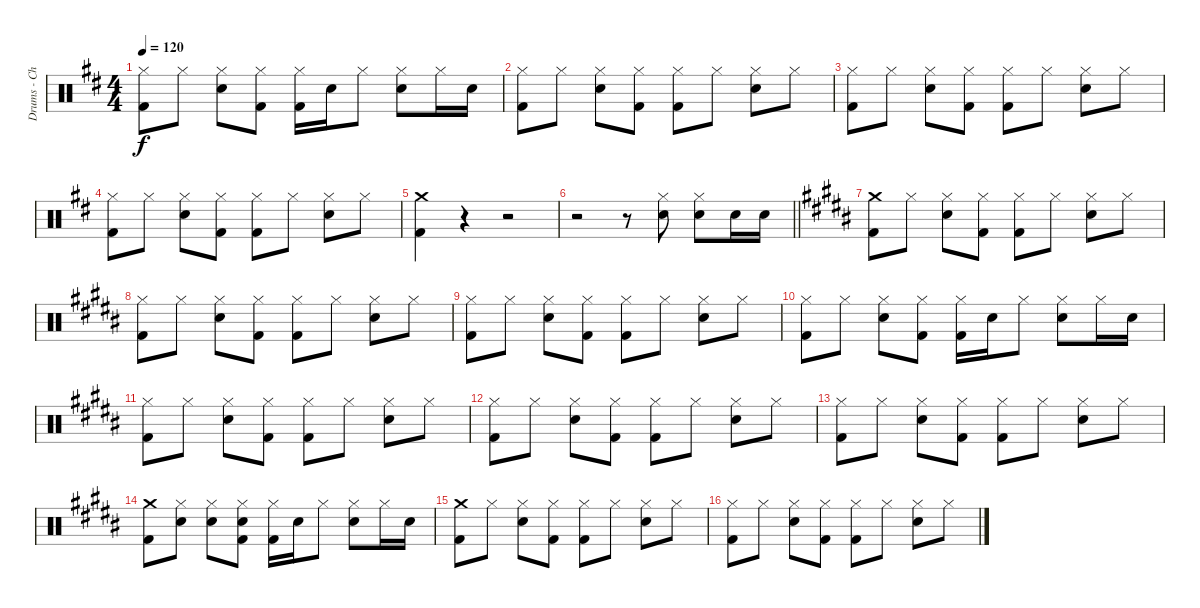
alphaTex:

\track ("Drums - Choi Min Hwan" "Drums - Ch") {instrument percussion}
\staff {score}
\articulation defaults
\ts (4 4)
\tempo 120
\clef neutral
\ks bminor
("Hi-Hat (closed)" "Kick (hit) 2").8{dy f} "Hi-Hat (closed)".8 ("Hi-Hat (closed)" "Electric Snare (hit)").8 ("Hi-Hat (closed)" "Kick (hit) 2").8 ("Hi-Hat (closed)" "Kick (hit) 2").16 "Electric Snare (hit)".16 "Hi-Hat (closed)".8 ("Hi-Hat (closed)" "Electric Snare (hit)").8 "Hi-Hat (closed)".16 "Electric Snare (hit)".16 |
("Hi-Hat (closed)" "Kick (hit) 2").8 "Hi-Hat (closed)".8 ("Hi-Hat (closed)" "Electric Snare (hit)").8 ("Hi-Hat (closed)" "Kick (hit) 2").8 ("Hi-Hat (closed)" "Kick (hit) 2").8 "Hi-Hat (closed)".8 ("Hi-Hat (closed)" "Electric Snare (hit)").8 "Hi-Hat (closed)".8 |
("Hi-Hat (closed)" "Kick (hit) 2").8 "Hi-Hat (closed)".8 ("Hi-Hat (closed)" "Electric Snare (hit)").8 ("Hi-Hat (closed)" "Kick (hit) 2").8 ("Hi-Hat (closed)" "Kick (hit) 2").8 "Hi-Hat (closed)".8 ("Hi-Hat (closed)" "Electric Snare (hit)").8 "Hi-Hat (closed)".8 |
("Hi-Hat (closed)" "Kick (hit) 2").8 "Hi-Hat (closed)".8 ("Hi-Hat (closed)" "Electric Snare (hit)").8 ("Hi-Hat (closed)" "Kick (hit) 2").8 ("Hi-Hat (closed)" "Kick (hit) 2").8 "Hi-Hat (closed)".8 ("Hi-Hat (closed)" "Electric Snare (hit)").8 "Hi-Hat (closed)".8 |
("Crash medium (hit)" "Kick (hit) 2").4 r.4 r.2 |
\barLineRight lightlight
r.2 r.8 ("Hi-Hat (closed)" "Electric Snare (hit)").8 ("Hi-Hat (closed)" "Electric Snare (hit)").8 "Electric Snare (hit)".16 "Electric Snare (hit)".16 |
\ks g#minor
("Crash medium (hit)" "Kick (hit) 2").8 "Hi-Hat (closed)".8 ("Hi-Hat (closed)" "Electric Snare (hit)").8 ("Hi-Hat (closed)" "Kick (hit) 2").8 ("Hi-Hat (closed)" "Kick (hit) 2").8 "Hi-Hat (closed)".8 ("Hi-Hat (closed)" "Electric Snare (hit)").8 "Hi-Hat (closed)".8 |
("Hi-Hat (closed)" "Kick (hit) 2").8 "Hi-Hat (closed)".8 ("Hi-Hat (closed)" "Electric Snare (hit)").8 ("Hi-Hat (closed)" "Kick (hit) 2").8 ("Hi-Hat (closed)" "Kick (hit) 2").8 "Hi-Hat (closed)".8 ("Hi-Hat (closed)" "Electric Snare (hit)").8 "Hi-Hat (closed)".8 |
("Hi-Hat (closed)" "Kick (hit) 2").8 "Hi-Hat (closed)".8 ("Hi-Hat (closed)" "Electric Snare (hit)").8 ("Hi-Hat (closed)" "Kick (hit) 2").8 ("Hi-Hat (closed)" "Kick (hit) 2").8 "Hi-Hat (closed)".8 ("Hi-Hat (closed)" "Electric Snare (hit)").8 "Hi-Hat (closed)".8 |
("Hi-Hat (closed)" "Kick (hit) 2").8 "Hi-Hat (closed)".8 ("Hi-Hat (closed)" "Electric Snare (hit)").8 ("Hi-Hat (closed)" "Kick (hit) 2").8 ("Hi-Hat (closed)" "Kick (hit) 2").16 "Electric Snare (hit)".16 "Hi-Hat (closed)".8 ("Hi-Hat (closed)" "Electric Snare (hit)").8 "Hi-Hat (closed)".16 "Electric Snare (hit)".16 |
("Hi-Hat (closed)" "Kick (hit) 2").8 "Hi-Hat (closed)".8 ("Hi-Hat (closed)" "Electric Snare (hit)").8 ("Hi-Hat (closed)" "Kick (hit) 2").8 ("Hi-Hat (closed)" "Kick (hit) 2").8 "Hi-Hat (closed)".8 ("Hi-Hat (closed)" "Electric Snare (hit)").8 "Hi-Hat (closed)".8 |
("Hi-Hat (closed)" "Kick (hit) 2").8 "Hi-Hat (closed)".8 ("Hi-Hat (closed)" "Electric Snare (hit)").8 ("Hi-Hat (closed)" "Kick (hit) 2").8 ("Hi-Hat (closed)" "Kick (hit) 2").8 "Hi-Hat (closed)".8 ("Hi-Hat (closed)" "Electric Snare (hit)").8 "Hi-Hat (closed)".8 |
("Hi-Hat (closed)" "Kick (hit) 2").8 "Hi-Hat (closed)".8 ("Hi-Hat (closed)" "Electric Snare (hit)").8 ("Hi-Hat (closed)" "Kick (hit) 2").8 ("Hi-Hat (closed)" "Kick (hit) 2").8 "Hi-Hat (closed)".8 ("Hi-Hat (closed)" "Electric Snare (hit)").8 "Hi-Hat (closed)".8 |
("Crash medium (hit)" "Kick (hit) 2").8 ("Hi-Hat (closed)" "Electric Snare (hit)").8 ("Hi-Hat (closed)" "Electric Snare (hit)").8 ("Hi-Hat (closed)" "Electric Snare (hit)" "Kick (hit) 2").8 ("Hi-Hat (closed)" "Kick (hit) 2").16 "Electric Snare (hit)".16 "Hi-Hat (closed)".8 ("Hi-Hat (closed)" "Electric Snare (hit)").8 "Hi-Hat (closed)".16 "Electric Snare (hit)".16 |
("Crash medium (hit)" "Kick (hit) 2").8 "Hi-Hat (closed)".8 ("Hi-Hat (closed)" "Electric Snare (hit)").8 ("Hi-Hat (closed)" "Kick (hit) 2").8 ("Hi-Hat (closed)" "Kick (hit) 2").8 "Hi-Hat (closed)".8 ("Hi-Hat (closed)" "Electric Snare (hit)").8 "Hi-Hat (closed)".8 |
("Hi-Hat (closed)" "Kick (hit) 2").8 "Hi-Hat (closed)".8 ("Hi-Hat (closed)" "Electric Snare (hit)").8 ("Hi-Hat (closed)" "Kick (hit) 2").8 ("Hi-Hat (closed)" "Kick (hit) 2").8 "Hi-Hat (closed)".8 ("Hi-Hat (closed)" "Electric Snare (hit)").8 "Hi-Hat (closed)".8
